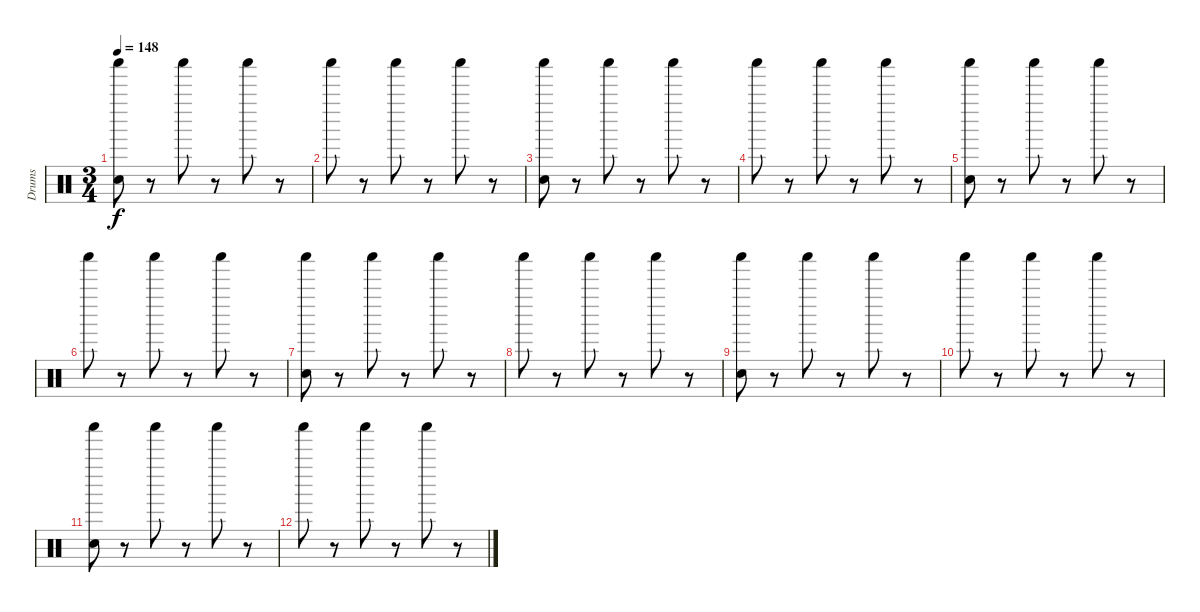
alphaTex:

\track ("Drums" "Drums") {instrument percussion bank 1}
\staff {score}
\articulation defaults
\ts (3 4)
\tempo 148
\clef neutral
\ks c
("Shaker (hit)" "Hand Clap (hit)").8{dy f} r.8 "Shaker (hit)".8 r.8 "Shaker (hit)".8 r.8 |
"Shaker (hit)".8 r.8 "Shaker (hit)".8 r.8 "Shaker (hit)".8 r.8 |
("Shaker (hit)" "Hand Clap (hit)").8 r.8 "Shaker (hit)".8 r.8 "Shaker (hit)".8 r.8 |
"Shaker (hit)".8 r.8 "Shaker (hit)".8 r.8 "Shaker (hit)".8 r.8 |
("Shaker (hit)" "Hand Clap (hit)").8 r.8 "Shaker (hit)".8 r.8 "Shaker (hit)".8 r.8 |
"Shaker (hit)".8 r.8 "Shaker (hit)".8 r.8 "Shaker (hit)".8 r.8 |
("Shaker (hit)" "Hand Clap (hit)").8 r.8 "Shaker (hit)".8 r.8 "Shaker (hit)".8 r.8 |
"Shaker (hit)".8 r.8 "Shaker (hit)".8 r.8 "Shaker (hit)".8 r.8 |
("Shaker (hit)" "Hand Clap (hit)").8{volume 0} r.8 "Shaker (hit)".8 r.8 "Shaker (hit)".8 r.8 |
"Shaker (hit)".8 r.8 "Shaker (hit)".8 r.8 "Shaker (hit)".8 r.8 |
("Shaker (hit)" "Hand Clap (hit)").8 r.8 "Shaker (hit)".8 r.8 "Shaker (hit)".8 r.8 |
"Shaker (hit)".8 r.8 "Shaker (hit)".8 r.8 "Shaker (hit)".8 r.8
